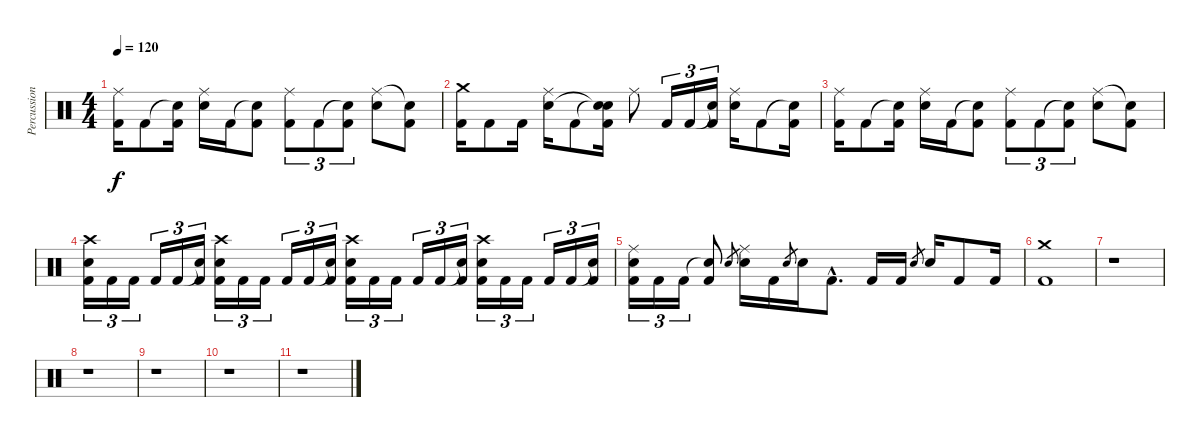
\track ("Percussion" "Percussion") {instrument percussion}
\staff {score}
\articulation defaults
\ts (4 4)
\tempo 120
\clef neutral
\ks c
("Ride (middle)" "Kick (hit) 2").16{dy f} "Kick (hit) 2".8 ("Snare (hit)"{t} "Kick (hit) 2").16 ("Ride (middle)" "Electric Snare (hit)").16 "Kick (hit) 2".16 ("Snare (hit)"{t} "Kick (hit) 2").8 ("Ride (middle)" "Kick (hit) 2").8{tu (3 2)} "Kick (hit) 2".8{tu (3 2)} ("Snare (hit)"{t} "Kick (hit) 2").8{tu (3 2)} ("Ride (middle)" "Electric Snare (hit)").8 ("Snare (hit)"{t} "Kick (hit) 2").8 |
("Crash medium (hit)" "Kick (hit) 2").16 "Kick (hit) 2".8 "Kick (hit) 2".16 ("Ride (middle)" "Electric Snare (hit)").16 "Kick (hit) 2".8 ("Snare (hit)"{t} "Snare (hit)"{t} "Kick (hit) 2").16 "Ride (middle)".8 "Kick (hit) 2".16{tu (3 2)} "Kick (hit) 2".16{tu (3 2)} ("Snare (hit)"{t} "Kick (hit) 2").16{tu (3 2)} ("Ride (middle)" "Electric Snare (hit)").16 "Kick (hit) 2".8 ("Snare (hit)"{t} "Kick (hit) 2").16 |
("Ride (middle)" "Kick (hit) 2").16 "Kick (hit) 2".8 ("Snare (hit)"{t} "Kick (hit) 2").16 ("Ride (middle)" "Electric Snare (hit)").16 "Kick (hit) 2".16 ("Snare (hit)"{t} "Kick (hit) 2").8 ("Ride (middle)" "Kick (hit) 2").8{tu (3 2)} "Kick (hit) 2".8{tu (3 2)} ("Snare (hit)"{t} "Kick (hit) 2").8{tu (3 2)} ("Ride (middle)" "Electric Snare (hit)").8 ("Snare (hit)"{t} "Kick (hit) 2").8 |
("Crash high (hit)" "Electric Snare (hit)" "Kick (hit) 2").16{tu (3 2)} "Kick (hit) 2".16{tu (3 2)} "Kick (hit) 2".16{tu (3 2)} "Kick (hit) 2".16{tu (3 2)} "Kick (hit) 2".16{tu (3 2)} ("Snare (hit)"{t} "Kick (hit) 2").16{tu (3 2)} ("Crash high (hit)" "Electric Snare (hit)" "Kick (hit) 2").16{tu (3 2)} "Kick (hit) 2".16{tu (3 2)} "Kick (hit) 2".16{tu (3 2)} "Kick (hit) 2".16{tu (3 2)} "Kick (hit) 2".16{tu (3 2)} ("Snare (hit)"{t} "Kick (hit) 2").16{tu (3 2)} ("Crash high (hit)" "Electric Snare (hit)" "Kick (hit) 2").16{tu (3 2)} "Kick (hit) 2".16{tu (3 2)} "Kick (hit) 2".16{tu (3 2)} "Kick (hit) 2".16{tu (3 2)} "Kick (hit) 2".16{tu (3 2)} ("Snare (hit)"{t} "Kick (hit) 2").16{tu (3 2)} ("Crash high (hit)" "Electric Snare (hit)" "Kick (hit) 2").16{tu (3 2)} "Kick (hit) 2".16{tu (3 2)} "Kick (hit) 2".16{tu (3 2)} "Kick (hit) 2".16{tu (3 2)} "Kick (hit) 2".16{tu (3 2)} ("Snare (hit)"{t} "Kick (hit) 2").16{tu (3 2)} |
("Ride (middle)" "Electric Snare (hit)" "Kick (hit) 2").16{tu (3 2)} "Kick (hit) 2".16{tu (3 2)} "Kick (hit) 2".16{tu (3 2)} ("Snare (hit)"{t} "Kick (hit) 2").8 "Electric Snare (hit)".8{gr} ("Ride (middle)" "Electric Snare (hit)").16 "Kick (hit) 2".16 "Electric Snare (hit)".8{gr} "Electric Snare (hit)".16 "Kick (hit) 2"{hac}.8{d} "Kick (hit) 2".16 "Kick (hit) 2".16 "Electric Snare (hit)".8{gr} "Electric Snare (hit)".16 "Kick (hit) 2".8 "Kick (hit) 2".16 |
("Crash medium (hit)" "Kick (hit) 2").1 |
r.1 |
r.1 |
r.1 |
r.1 |
r.1
